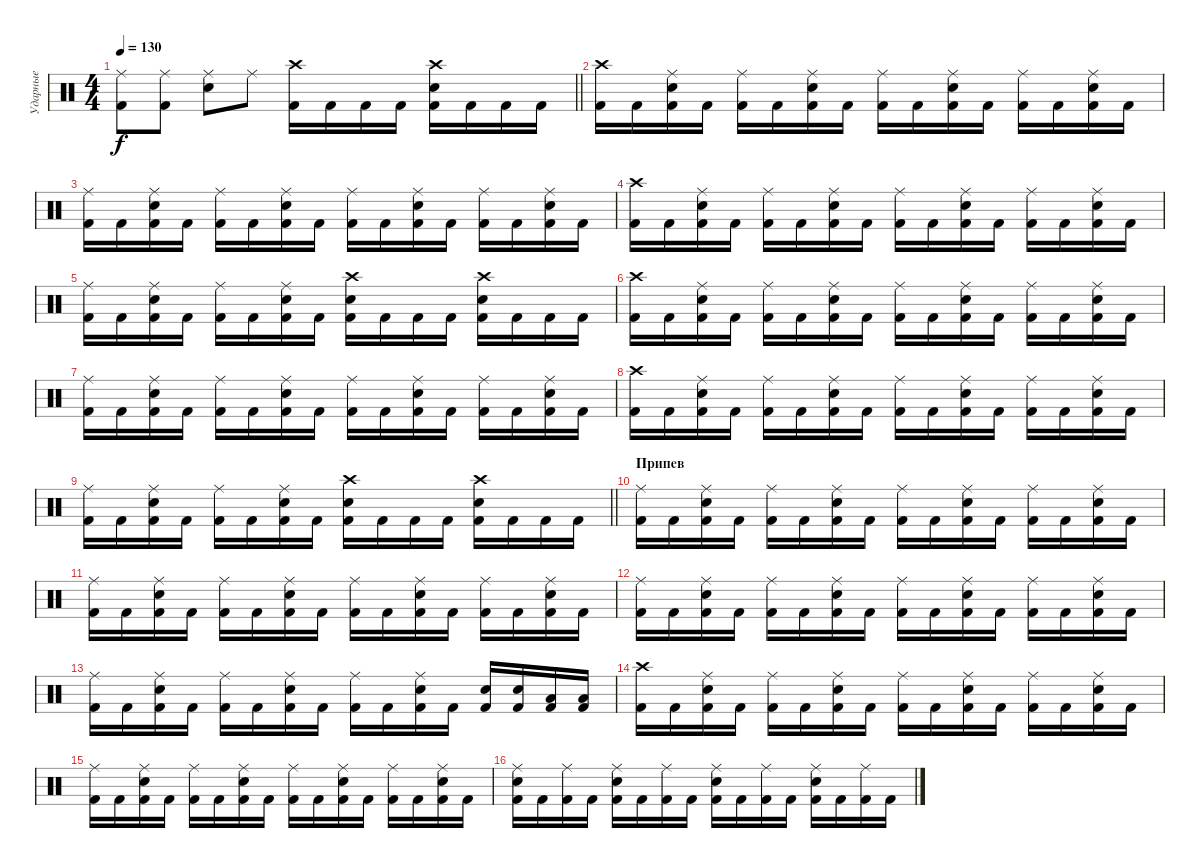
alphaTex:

\track ("Ударные" "Ударные") {instrument percussion}
\staff {score}
\articulation defaults
\ts (4 4)
\tempo 130
\clef neutral
\barLineRight lightlight
\ks c
("Ride (middle)" "Kick (hit) 2").8{dy f} ("Ride (middle)" "Kick (hit) 2").8 ("Ride (middle)" "Snare (hit) 2").8 "Ride (middle)".8 ("Crash high (hit)" "Kick (hit) 2").16 "Kick (hit) 2".16 "Kick (hit) 2".16 "Kick (hit) 2".16 ("Crash high (hit)" "Snare (hit) 2" "Kick (hit) 2").16 "Kick (hit) 2".16 "Kick (hit) 2".16 "Kick (hit) 2".16 |
\section ("" "")
("Crash high (hit)" "Kick (hit) 2").16 "Kick (hit) 2".16 ("Ride (middle)" "Snare (hit) 2" "Kick (hit) 2").16 "Kick (hit) 2".16 ("Ride (middle)" "Kick (hit) 2").16 "Kick (hit) 2".16 ("Ride (middle)" "Snare (hit) 2" "Kick (hit) 2").16 "Kick (hit) 2".16 ("Ride (middle)" "Kick (hit) 2").16 "Kick (hit) 2".16 ("Ride (middle)" "Snare (hit) 2" "Kick (hit) 2").16 "Kick (hit) 2".16 ("Ride (middle)" "Kick (hit) 2").16 "Kick (hit) 2".16 ("Ride (middle)" "Snare (hit) 2" "Kick (hit) 2").16 "Kick (hit) 2".16 |
("Ride (middle)" "Kick (hit) 2").16 "Kick (hit) 2".16 ("Ride (middle)" "Snare (hit) 2" "Kick (hit) 2").16 "Kick (hit) 2".16 ("Ride (middle)" "Kick (hit) 2").16 "Kick (hit) 2".16 ("Ride (middle)" "Snare (hit) 2" "Kick (hit) 2").16 "Kick (hit) 2".16 ("Ride (middle)" "Kick (hit) 2").16 "Kick (hit) 2".16 ("Ride (middle)" "Snare (hit) 2" "Kick (hit) 2").16 "Kick (hit) 2".16 ("Ride (middle)" "Kick (hit) 2").16 "Kick (hit) 2".16 ("Ride (middle)" "Snare (hit) 2" "Kick (hit) 2").16 "Kick (hit) 2".16 |
("Crash high (hit)" "Kick (hit) 2").16 "Kick (hit) 2".16 ("Ride (middle)" "Snare (hit) 2" "Kick (hit) 2").16 "Kick (hit) 2".16 ("Ride (middle)" "Kick (hit) 2").16 "Kick (hit) 2".16 ("Ride (middle)" "Snare (hit) 2" "Kick (hit) 2").16 "Kick (hit) 2".16 ("Ride (middle)" "Kick (hit) 2").16 "Kick (hit) 2".16 ("Ride (middle)" "Snare (hit) 2" "Kick (hit) 2").16 "Kick (hit) 2".16 ("Ride (middle)" "Kick (hit) 2").16 "Kick (hit) 2".16 ("Ride (middle)" "Snare (hit) 2" "Kick (hit) 2").16 "Kick (hit) 2".16 |
("Ride (middle)" "Kick (hit) 2").16 "Kick (hit) 2".16 ("Ride (middle)" "Snare (hit) 2" "Kick (hit) 2").16 "Kick (hit) 2".16 ("Ride (middle)" "Kick (hit) 2").16 "Kick (hit) 2".16 ("Ride (middle)" "Snare (hit) 2" "Kick (hit) 2").16 "Kick (hit) 2".16 ("Crash high (hit)" "Snare (hit) 2" "Kick (hit) 2").16 "Kick (hit) 2".16 "Kick (hit) 2".16 "Kick (hit) 2".16 ("Crash high (hit)" "Snare (hit) 2" "Kick (hit) 2").16 "Kick (hit) 2".16 "Kick (hit) 2".16 "Kick (hit) 2".16 |
("Crash high (hit)" "Kick (hit) 2").16 "Kick (hit) 2".16 ("Ride (middle)" "Snare (hit) 2" "Kick (hit) 2").16 "Kick (hit) 2".16 ("Ride (middle)" "Kick (hit) 2").16 "Kick (hit) 2".16 ("Ride (middle)" "Snare (hit) 2" "Kick (hit) 2").16 "Kick (hit) 2".16 ("Ride (middle)" "Kick (hit) 2").16 "Kick (hit) 2".16 ("Ride (middle)" "Snare (hit) 2" "Kick (hit) 2").16 "Kick (hit) 2".16 ("Ride (middle)" "Kick (hit) 2").16 "Kick (hit) 2".16 ("Ride (middle)" "Snare (hit) 2" "Kick (hit) 2").16 "Kick (hit) 2".16 |
("Ride (middle)" "Kick (hit) 2").16 "Kick (hit) 2".16 ("Ride (middle)" "Snare (hit) 2" "Kick (hit) 2").16 "Kick (hit) 2".16 ("Ride (middle)" "Kick (hit) 2").16 "Kick (hit) 2".16 ("Ride (middle)" "Snare (hit) 2" "Kick (hit) 2").16 "Kick (hit) 2".16 ("Ride (middle)" "Kick (hit) 2").16 "Kick (hit) 2".16 ("Ride (middle)" "Snare (hit) 2" "Kick (hit) 2").16 "Kick (hit) 2".16 ("Ride (middle)" "Kick (hit) 2").16 "Kick (hit) 2".16 ("Ride (middle)" "Snare (hit) 2" "Kick (hit) 2").16 "Kick (hit) 2".16 |
("Crash high (hit)" "Kick (hit) 2").16 "Kick (hit) 2".16 ("Ride (middle)" "Snare (hit) 2" "Kick (hit) 2").16 "Kick (hit) 2".16 ("Ride (middle)" "Kick (hit) 2").16 "Kick (hit) 2".16 ("Ride (middle)" "Snare (hit) 2" "Kick (hit) 2").16 "Kick (hit) 2".16 ("Ride (middle)" "Kick (hit) 2").16 "Kick (hit) 2".16 ("Ride (middle)" "Snare (hit) 2" "Kick (hit) 2").16 "Kick (hit) 2".16 ("Ride (middle)" "Kick (hit) 2").16 "Kick (hit) 2".16 ("Ride (middle)" "Snare (hit) 2" "Kick (hit) 2").16 "Kick (hit) 2".16 |
\barLineRight lightlight
("Ride (middle)" "Kick (hit) 2").16 "Kick (hit) 2".16 ("Ride (middle)" "Snare (hit) 2" "Kick (hit) 2").16 "Kick (hit) 2".16 ("Ride (middle)" "Kick (hit) 2").16 "Kick (hit) 2".16 ("Ride (middle)" "Snare (hit) 2" "Kick (hit) 2").16 "Kick (hit) 2".16 ("Crash high (hit)" "Snare (hit) 2" "Kick (hit) 2").16 "Kick (hit) 2".16 "Kick (hit) 2".16 "Kick (hit) 2".16 ("Crash high (hit)" "Snare (hit) 2" "Kick (hit) 2").16 "Kick (hit) 2".16 "Kick (hit) 2".16 "Kick (hit) 2".16 |
\section ("" "Припев")
("Ride (middle)" "Kick (hit) 2").16 "Kick (hit) 2".16 ("Ride (middle)" "Snare (hit) 2" "Kick (hit) 2").16 "Kick (hit) 2".16 ("Ride (middle)" "Kick (hit) 2").16 "Kick (hit) 2".16 ("Ride (middle)" "Snare (hit) 2" "Kick (hit) 2").16 "Kick (hit) 2".16 ("Ride (middle)" "Kick (hit) 2").16 "Kick (hit) 2".16 ("Ride (middle)" "Snare (hit) 2" "Kick (hit) 2").16 "Kick (hit) 2".16 ("Ride (middle)" "Kick (hit) 2").16 "Kick (hit) 2".16 ("Ride (middle)" "Snare (hit) 2" "Kick (hit) 2").16 "Kick (hit) 2".16 |
("Ride (middle)" "Kick (hit) 2").16 "Kick (hit) 2".16 ("Ride (middle)" "Snare (hit) 2" "Kick (hit) 2").16 "Kick (hit) 2".16 ("Ride (middle)" "Kick (hit) 2").16 "Kick (hit) 2".16 ("Ride (middle)" "Snare (hit) 2" "Kick (hit) 2").16 "Kick (hit) 2".16 ("Ride (middle)" "Kick (hit) 2").16 "Kick (hit) 2".16 ("Ride (middle)" "Snare (hit) 2" "Kick (hit) 2").16 "Kick (hit) 2".16 ("Ride (middle)" "Kick (hit) 2").16 "Kick (hit) 2".16 ("Ride (middle)" "Snare (hit) 2" "Kick (hit) 2").16 "Kick (hit) 2".16 |
("Ride (middle)" "Kick (hit) 2").16 "Kick (hit) 2".16 ("Ride (middle)" "Snare (hit) 2" "Kick (hit) 2").16 "Kick (hit) 2".16 ("Ride (middle)" "Kick (hit) 2").16 "Kick (hit) 2".16 ("Ride (middle)" "Snare (hit) 2" "Kick (hit) 2").16 "Kick (hit) 2".16 ("Ride (middle)" "Kick (hit) 2").16 "Kick (hit) 2".16 ("Ride (middle)" "Snare (hit) 2" "Kick (hit) 2").16 "Kick (hit) 2".16 ("Ride (middle)" "Kick (hit) 2").16 "Kick (hit) 2".16 ("Ride (middle)" "Snare (hit) 2" "Kick (hit) 2").16 "Kick (hit) 2".16 |
("Ride (middle)" "Kick (hit) 2").16 "Kick (hit) 2".16 ("Ride (middle)" "Snare (hit) 2" "Kick (hit) 2").16 "Kick (hit) 2".16 ("Ride (middle)" "Kick (hit) 2").16 "Kick (hit) 2".16 ("Ride (middle)" "Snare (hit) 2" "Kick (hit) 2").16 "Kick (hit) 2".16 ("Ride (middle)" "Kick (hit) 2").16 "Kick (hit) 2".16 ("Ride (middle)" "Snare (hit) 2" "Kick (hit) 2").16 "Kick (hit) 2".16 ("Snare (hit) 2" "Kick (hit) 2").16 ("Snare (hit) 2" "Kick (hit) 2").16 ("Low Tom (hit)" "Kick (hit) 2").16 ("Low Tom (hit)" "Kick (hit) 2").16 |
("Crash high (hit)" "Kick (hit) 2").16 "Kick (hit) 2".16 ("Ride (middle)" "Snare (hit) 2" "Kick (hit) 2").16 "Kick (hit) 2".16 ("Ride (middle)" "Kick (hit) 2").16 "Kick (hit) 2".16 ("Ride (middle)" "Snare (hit) 2" "Kick (hit) 2").16 "Kick (hit) 2".16 ("Ride (middle)" "Kick (hit) 2").16 "Kick (hit) 2".16 ("Ride (middle)" "Snare (hit) 2" "Kick (hit) 2").16 "Kick (hit) 2".16 ("Ride (middle)" "Kick (hit) 2").16 "Kick (hit) 2".16 ("Ride (middle)" "Snare (hit) 2" "Kick (hit) 2").16 "Kick (hit) 2".16 |
("Ride (middle)" "Kick (hit) 2").16 "Kick (hit) 2".16 ("Ride (middle)" "Snare (hit) 2" "Kick (hit) 2").16 "Kick (hit) 2".16 ("Ride (middle)" "Kick (hit) 2").16 "Kick (hit) 2".16 ("Ride (middle)" "Snare (hit) 2" "Kick (hit) 2").16 "Kick (hit) 2".16 ("Ride (middle)" "Kick (hit) 2").16 "Kick (hit) 2".16 ("Ride (middle)" "Snare (hit) 2" "Kick (hit) 2").16 "Kick (hit) 2".16 ("Ride (middle)" "Kick (hit) 2").16 "Kick (hit) 2".16 ("Ride (middle)" "Snare (hit) 2" "Kick (hit) 2").16 "Kick (hit) 2".16 |
("Ride (middle)" "Snare (hit) 2" "Kick (hit) 2").16 "Kick (hit) 2".16 ("Ride (middle)" "Kick (hit) 2").16 "Kick (hit) 2".16 ("Ride (middle)" "Snare (hit) 2" "Kick (hit) 2").16 "Kick (hit) 2".16 ("Ride (middle)" "Kick (hit) 2").16 "Kick (hit) 2".16 ("Ride (middle)" "Snare (hit) 2" "Kick (hit) 2").16 "Kick (hit) 2".16 ("Ride (middle)" "Kick (hit) 2").16 "Kick (hit) 2".16 ("Ride (middle)" "Snare (hit) 2" "Kick (hit) 2").16 "Kick (hit) 2".16 ("Ride (middle)" "Kick (hit) 2").16 "Kick (hit) 2".16
